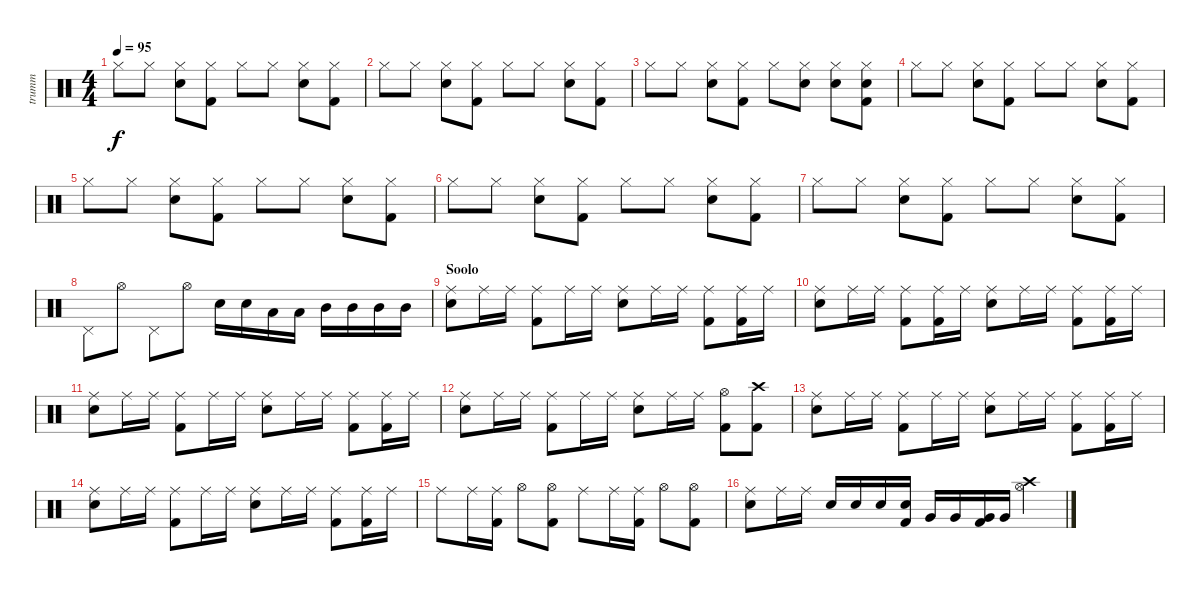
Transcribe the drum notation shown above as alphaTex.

\track ("trumm" "trumm") {instrument percussion}
\staff {score}
\articulation defaults
\ts (4 4)
\tempo 95
\clef neutral
\ks c "Hi-Hat (closed)".8{dy f} "Hi-Hat (closed)".8
("Hi-Hat (closed)" "Snare (hit) 2").8 ("Hi-Hat (closed)" "Kick (hit) 2").8 "Hi-Hat (closed)".8 "Hi-Hat (closed)".8 ("Hi-Hat (closed)" "Snare (hit) 2").8 ("Hi-Hat (closed)" "Kick (hit) 2").8 |
"Hi-Hat (closed)".8 "Hi-Hat (closed)".8 ("Hi-Hat (closed)" "Snare (hit) 2").8 ("Hi-Hat (closed)" "Kick (hit) 2").8 "Hi-Hat (closed)".8 "Hi-Hat (closed)".8 ("Hi-Hat (closed)" "Snare (hit) 2").8 ("Hi-Hat (closed)" "Kick (hit) 2").8 |
"Hi-Hat (closed)".8 "Hi-Hat (closed)".8 ("Hi-Hat (closed)" "Snare (hit) 2").8 ("Hi-Hat (closed)" "Kick (hit) 2").8 "Hi-Hat (closed)".8 ("Hi-Hat (closed)" "Snare (hit) 2").8 ("Hi-Hat (closed)" "Snare (hit) 2").8 ("Hi-Hat (closed)" "Snare (hit) 2" "Kick (hit) 2").8 |
"Hi-Hat (closed)".8 "Hi-Hat (closed)".8 ("Hi-Hat (closed)" "Snare (hit) 2").8 ("Hi-Hat (closed)" "Kick (hit) 2").8 "Hi-Hat (closed)".8 "Hi-Hat (closed)".8 ("Hi-Hat (closed)" "Snare (hit) 2").8 ("Hi-Hat (closed)" "Kick (hit) 2").8 |
"Hi-Hat (closed)".8 "Hi-Hat (closed)".8 ("Hi-Hat (closed)" "Snare (hit) 2").8 ("Hi-Hat (closed)" "Kick (hit) 2").8 "Hi-Hat (closed)".8 "Hi-Hat (closed)".8 ("Hi-Hat (closed)" "Snare (hit) 2").8 ("Hi-Hat (closed)" "Kick (hit) 2").8 |
"Hi-Hat (closed)".8 "Hi-Hat (closed)".8 ("Hi-Hat (closed)" "Snare (hit) 2").8 ("Hi-Hat (closed)" "Kick (hit) 2").8 "Hi-Hat (closed)".8 "Hi-Hat (closed)".8 ("Hi-Hat (closed)" "Snare (hit) 2").8 ("Hi-Hat (closed)" "Kick (hit) 2").8 |
"Hi-Hat (closed)".8 "Hi-Hat (closed)".8 ("Hi-Hat (closed)" "Snare (hit) 2").8 ("Hi-Hat (closed)" "Kick (hit) 2").8 "Hi-Hat (closed)".8 "Hi-Hat (closed)".8 ("Hi-Hat (closed)" "Snare (hit) 2").8 ("Hi-Hat (closed)" "Kick (hit) 2").8 |
"Pedal Hi-Hat (hit)".8 "Hi-Hat (open)".8 "Pedal Hi-Hat (hit)".8 "Hi-Hat (open)".8 "Snare (hit) 2".16 "Snare (hit) 2".16 "Low Tom (hit)".16 "Low Tom (hit)".16 "Mid Tom (hit)".16 "Mid Tom (hit)".16 "Mid Tom (hit)".16 "Mid Tom (hit)".16 |
\section ("" "Soolo")
("Ride (middle)" "Snare (hit) 2").8 "Ride (middle)".16 "Ride (middle)".16 ("Ride (middle)" "Kick (hit) 2").8 "Ride (middle)".16 "Ride (middle)".16 ("Ride (middle)" "Snare (hit) 2").8 "Ride (middle)".16 "Ride (middle)".16 ("Ride (middle)" "Kick (hit) 2").8 ("Ride (middle)" "Kick (hit) 2").16 "Ride (middle)".16 |
("Ride (middle)" "Snare (hit) 2").8 "Ride (middle)".16 "Ride (middle)".16 ("Ride (middle)" "Kick (hit) 2").8 ("Ride (middle)" "Kick (hit) 2").16 "Ride (middle)".16 ("Ride (middle)" "Snare (hit) 2").8 "Ride (middle)".16 "Ride (middle)".16 ("Ride (middle)" "Kick (hit) 2").8 ("Ride (middle)" "Kick (hit) 2").16 "Ride (middle)".16 |
("Ride (middle)" "Snare (hit) 2").8 "Ride (middle)".16 "Ride (middle)".16 ("Ride (middle)" "Kick (hit) 2").8 "Ride (middle)".16 "Ride (middle)".16 ("Ride (middle)" "Snare (hit) 2").8 "Ride (middle)".16 "Ride (middle)".16 ("Ride (middle)" "Kick (hit) 2").8 ("Ride (middle)" "Kick (hit) 2").16 "Ride (middle)".16 |
("Ride (middle)" "Snare (hit) 2").8 "Ride (middle)".16 "Ride (middle)".16 ("Ride (middle)" "Kick (hit) 2").8 "Ride (middle)".16 "Ride (middle)".16 ("Ride (middle)" "Snare (hit) 2").8 "Ride (middle)".16 "Ride (middle)".16 ("Hi-Hat (open)" "Kick (hit) 2").8 ("Crash high (hit)" "Kick (hit) 2").8 |
("Ride (middle)" "Snare (hit) 2").8 "Ride (middle)".16 "Ride (middle)".16 ("Ride (middle)" "Kick (hit) 2").8 "Ride (middle)".16 "Ride (middle)".16 ("Ride (middle)" "Snare (hit) 2").8 "Ride (middle)".16 "Ride (middle)".16 ("Ride (middle)" "Kick (hit) 2").8 ("Ride (middle)" "Kick (hit) 2").16 "Ride (middle)".16 |
("Ride (middle)" "Snare (hit) 2").8 "Ride (middle)".16 "Ride (middle)".16 ("Ride (middle)" "Kick (hit) 2").8 "Ride (middle)".16 "Ride (middle)".16 ("Ride (middle)" "Snare (hit) 2").8 "Ride (middle)".16 "Ride (middle)".16 ("Ride (middle)" "Kick (hit) 2").8 ("Ride (middle)" "Kick (hit) 2").16 "Ride (middle)".16 |
"Ride (middle)".8 "Ride (middle)".16 ("Ride (middle)" "Kick (hit) 2").16 "Hi-Hat (open)".8 ("Hi-Hat (open)" "Kick (hit) 2").8 "Ride (middle)".8 "Ride (middle)".16 ("Ride (middle)" "Kick (hit) 2").16 "Hi-Hat (open)".8 ("Hi-Hat (open)" "Kick (hit) 2").8 |
("Ride (middle)" "Snare (hit) 2").8 "Ride (middle)".16 "Ride (middle)".16 "Snare (hit) 2".16 "Snare (hit) 2".16 "Snare (hit) 2".16 ("Snare (hit) 2" "Kick (hit) 2").16 "Very Low Tom (hit)".16 "Very Low Tom (hit)".16 ("Very Low Tom (hit)" "Kick (hit) 2").16 "Very Low Tom (hit)".16 ("Crash high (hit)" "Hi-Hat (open)").4
